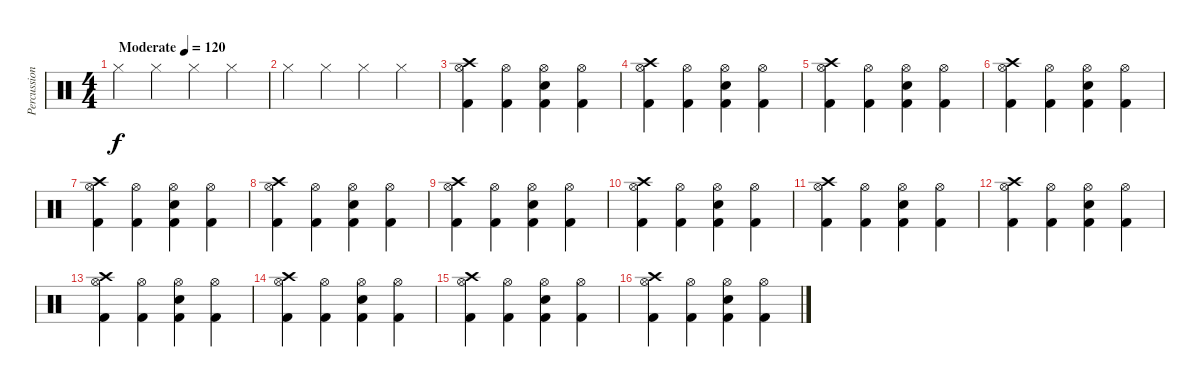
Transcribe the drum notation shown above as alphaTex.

\track ("Percussion" "Percussion") {instrument percussion}
\staff {score}
\articulation defaults
\ts (4 4)
\tempo (120 "Moderate")
\clef neutral
\ks c "Hi-Hat (closed)".4{dy f} "Hi-Hat (closed)".4 "Hi-Hat (closed)".4 "Hi-Hat (closed)".4
|
"Hi-Hat (closed)".4 "Hi-Hat (closed)".4 "Hi-Hat (closed)".4 "Hi-Hat (closed)".4 |
("Crash high (hit)" "Hi-Hat (open)" "Kick (hit) 2").4 ("Hi-Hat (open)" "Kick (hit) 2").4 ("Snare (hit) 2" "Hi-Hat (open)" "Kick (hit) 2").4 ("Hi-Hat (open)" "Kick (hit) 2").4 |
("Crash high (hit)" "Hi-Hat (open)" "Kick (hit) 2").4 ("Hi-Hat (open)" "Kick (hit) 2").4 ("Snare (hit) 2" "Hi-Hat (open)" "Kick (hit) 2").4 ("Hi-Hat (open)" "Kick (hit) 2").4 |
("Crash high (hit)" "Hi-Hat (open)" "Kick (hit) 2").4 ("Hi-Hat (open)" "Kick (hit) 2").4 ("Snare (hit) 2" "Hi-Hat (open)" "Kick (hit) 2").4 ("Hi-Hat (open)" "Kick (hit) 2").4 |
("Crash high (hit)" "Hi-Hat (open)" "Kick (hit) 2").4 ("Hi-Hat (open)" "Kick (hit) 2").4 ("Snare (hit) 2" "Hi-Hat (open)" "Kick (hit) 2").4 ("Hi-Hat (open)" "Kick (hit) 2").4 |
("Crash high (hit)" "Hi-Hat (open)" "Kick (hit) 2").4 ("Hi-Hat (open)" "Kick (hit) 2").4 ("Snare (hit) 2" "Hi-Hat (open)" "Kick (hit) 2").4 ("Hi-Hat (open)" "Kick (hit) 2").4 |
("Crash high (hit)" "Hi-Hat (open)" "Kick (hit) 2").4 ("Hi-Hat (open)" "Kick (hit) 2").4 ("Snare (hit) 2" "Hi-Hat (open)" "Kick (hit) 2").4 ("Hi-Hat (open)" "Kick (hit) 2").4 |
("Crash high (hit)" "Hi-Hat (open)" "Kick (hit) 2").4 ("Hi-Hat (open)" "Kick (hit) 2").4 ("Snare (hit) 2" "Hi-Hat (open)" "Kick (hit) 2").4 ("Hi-Hat (open)" "Kick (hit) 2").4 |
("Crash high (hit)" "Hi-Hat (open)" "Kick (hit) 2").4 ("Hi-Hat (open)" "Kick (hit) 2").4 ("Snare (hit) 2" "Hi-Hat (open)" "Kick (hit) 2").4 ("Hi-Hat (open)" "Kick (hit) 2").4 |
("Crash high (hit)" "Hi-Hat (open)" "Kick (hit) 2").4 ("Hi-Hat (open)" "Kick (hit) 2").4 ("Snare (hit) 2" "Hi-Hat (open)" "Kick (hit) 2").4 ("Hi-Hat (open)" "Kick (hit) 2").4 |
("Crash high (hit)" "Hi-Hat (open)" "Kick (hit) 2").4 ("Hi-Hat (open)" "Kick (hit) 2").4 ("Snare (hit) 2" "Hi-Hat (open)" "Kick (hit) 2").4 ("Hi-Hat (open)" "Kick (hit) 2").4 |
("Crash high (hit)" "Hi-Hat (open)" "Kick (hit) 2").4 ("Hi-Hat (open)" "Kick (hit) 2").4 ("Snare (hit) 2" "Hi-Hat (open)" "Kick (hit) 2").4 ("Hi-Hat (open)" "Kick (hit) 2").4 |
("Crash high (hit)" "Hi-Hat (open)" "Kick (hit) 2").4 ("Hi-Hat (open)" "Kick (hit) 2").4 ("Snare (hit) 2" "Hi-Hat (open)" "Kick (hit) 2").4 ("Hi-Hat (open)" "Kick (hit) 2").4 |
("Crash high (hit)" "Hi-Hat (open)" "Kick (hit) 2").4 ("Hi-Hat (open)" "Kick (hit) 2").4 ("Snare (hit) 2" "Hi-Hat (open)" "Kick (hit) 2").4 ("Hi-Hat (open)" "Kick (hit) 2").4 |
("Crash high (hit)" "Hi-Hat (open)" "Kick (hit) 2").4 ("Hi-Hat (open)" "Kick (hit) 2").4 ("Snare (hit) 2" "Hi-Hat (open)" "Kick (hit) 2").4 ("Hi-Hat (open)" "Kick (hit) 2").4
